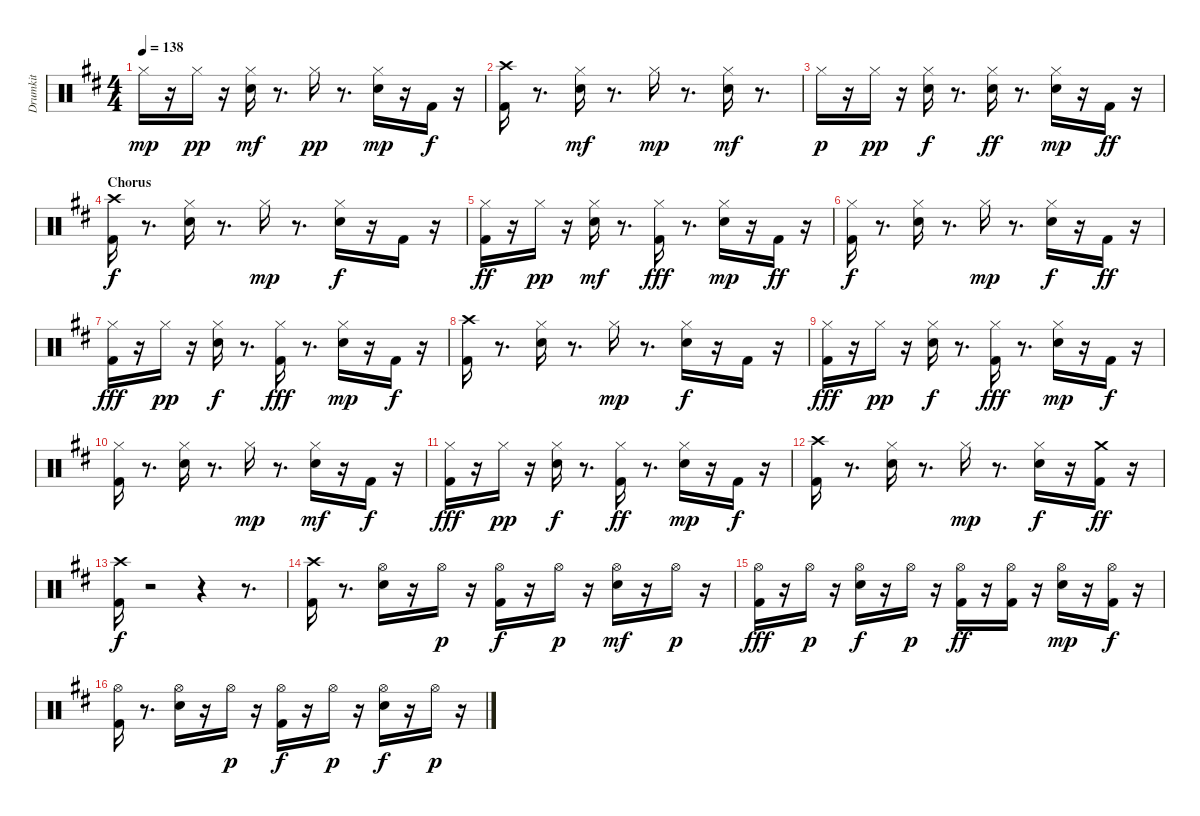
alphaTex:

\track ("Drumkit" "Drumkit") {instrument percussion}
\staff {score}
\articulation defaults
\ts (4 4)
\tempo 138
\clef neutral
\ks d "Hi-Hat (closed)".16{dy mp}
r.16 "Hi-Hat (closed)".16{dy pp} r.16 ("Snare (hit) 2" "Hi-Hat (closed)").16{dy mf} r.8{d} "Hi-Hat (closed)".16{dy pp} r.8{d} ("Snare (hit) 2" "Hi-Hat (closed)").16{dy mp} r.16 "Kick (hit) 2".16{dy f} r.16 |
("Kick (hit) 2" "Crash high (hit)").16 r.8{d} ("Snare (hit) 2" "Hi-Hat (closed)").16{dy mf} r.8{d} "Hi-Hat (closed)".16{dy mp} r.8{d} ("Snare (hit) 2" "Hi-Hat (closed)").16{dy mf} r.8{d} |
"Hi-Hat (closed)".16{dy p} r.16 "Hi-Hat (closed)".16{dy pp} r.16 ("Snare (hit) 2" "Hi-Hat (closed)").16{dy f} r.8{d} ("Snare (hit) 2" "Hi-Hat (closed)").16{dy ff} r.8{d} ("Snare (hit) 2" "Hi-Hat (closed)").16{dy mp} r.16 "Kick (hit) 2".16{dy ff} r.16 |
\section ("" "Chorus")
("Kick (hit) 2" "Crash high (hit)").16{dy f} r.8{d} ("Snare (hit) 2" "Hi-Hat (closed)").16 r.8{d} "Hi-Hat (closed)".16{dy mp} r.8{d} ("Snare (hit) 2" "Hi-Hat (closed)").16{dy f} r.16 "Kick (hit) 2".16 r.16 |
("Kick (hit) 2" "Hi-Hat (closed)").16{dy ff} r.16 "Hi-Hat (closed)".16{dy pp} r.16 ("Snare (hit) 2" "Hi-Hat (closed)").16{dy mf} r.8{d} ("Kick (hit) 2" "Hi-Hat (closed)").16{dy fff} r.8{d} ("Snare (hit) 2" "Hi-Hat (closed)").16{dy mp} r.16 "Kick (hit) 2".16{dy ff} r.16 |
("Kick (hit) 2" "Hi-Hat (closed)").16{dy f} r.8{d} ("Snare (hit) 2" "Hi-Hat (closed)").16 r.8{d} "Hi-Hat (closed)".16{dy mp} r.8{d} ("Snare (hit) 2" "Hi-Hat (closed)").16{dy f} r.16 "Kick (hit) 2".16{dy ff} r.16 |
("Kick (hit) 2" "Hi-Hat (closed)").16{dy fff} r.16 "Hi-Hat (closed)".16{dy pp} r.16 ("Snare (hit) 2" "Hi-Hat (closed)").16{dy f} r.8{d} ("Kick (hit) 2" "Hi-Hat (closed)").16{dy fff} r.8{d} ("Snare (hit) 2" "Hi-Hat (closed)").16{dy mp} r.16 "Kick (hit) 2".16{dy f} r.16 |
("Kick (hit) 2" "Crash high (hit)").16 r.8{d} ("Snare (hit) 2" "Hi-Hat (closed)").16 r.8{d} "Hi-Hat (closed)".16{dy mp} r.8{d} ("Snare (hit) 2" "Hi-Hat (closed)").16{dy f} r.16 "Kick (hit) 2".16 r.16 |
("Kick (hit) 2" "Hi-Hat (closed)").16{dy fff} r.16 "Hi-Hat (closed)".16{dy pp} r.16 ("Snare (hit) 2" "Hi-Hat (closed)").16{dy f} r.8{d} ("Kick (hit) 2" "Hi-Hat (closed)").16{dy fff} r.8{d} ("Snare (hit) 2" "Hi-Hat (closed)").16{dy mp} r.16 "Kick (hit) 2".16{dy f} r.16 |
("Kick (hit) 2" "Hi-Hat (closed)").16 r.8{d} ("Snare (hit) 2" "Hi-Hat (closed)").16 r.8{d} "Hi-Hat (closed)".16{dy mp} r.8{d} ("Snare (hit) 2" "Hi-Hat (closed)").16{dy mf} r.16 "Kick (hit) 2".16{dy f} r.16 |
("Kick (hit) 2" "Hi-Hat (closed)").16{dy fff} r.16 "Hi-Hat (closed)".16{dy pp} r.16 ("Snare (hit) 2" "Hi-Hat (closed)").16{dy f} r.8{d} ("Kick (hit) 2" "Hi-Hat (closed)").16{dy ff} r.8{d} ("Snare (hit) 2" "Hi-Hat (closed)").16{dy mp} r.16 "Kick (hit) 2".16{dy f} r.16 |
("Kick (hit) 2" "Crash high (hit)").16 r.8{d} ("Snare (hit) 2" "Hi-Hat (closed)").16 r.8{d} "Hi-Hat (closed)".16{dy mp} r.8{d} ("Snare (hit) 2" "Hi-Hat (closed)").16{dy f} r.16 ("Kick (hit) 2" "Crash medium (hit)").16{dy ff} r.16 |
("Kick (hit) 2" "Crash high (hit)").16{dy f} r.2 r.4 r.8{d} |
("Kick (hit) 2" "Crash high (hit)").16 r.8{d} ("Snare (hit) 2" "Hi-Hat (open)").16 r.16 "Hi-Hat (open)".16{dy p} r.16 ("Kick (hit) 2" "Hi-Hat (open)").16{dy f} r.16 "Hi-Hat (open)".16{dy p} r.16 ("Snare (hit) 2" "Hi-Hat (open)").16{dy mf} r.16 "Hi-Hat (open)".16{dy p} r.16 |
("Kick (hit) 2" "Hi-Hat (open)").16{dy fff} r.16 "Hi-Hat (open)".16{dy p} r.16 ("Snare (hit) 2" "Hi-Hat (open)").16{dy f} r.16 "Hi-Hat (open)".16{dy p} r.16 ("Kick (hit) 2" "Hi-Hat (open)").16{dy ff} r.16 ("Kick (hit) 2" "Hi-Hat (open)").16 r.16 ("Snare (hit) 2" "Hi-Hat (open)").16{dy mp} r.16 ("Kick (hit) 2" "Hi-Hat (open)").16{dy f} r.16 |
("Kick (hit) 2" "Hi-Hat (open)").16 r.8{d} ("Snare (hit) 2" "Hi-Hat (open)").16 r.16 "Hi-Hat (open)".16{dy p} r.16 ("Kick (hit) 2" "Hi-Hat (open)").16{dy f} r.16 "Hi-Hat (open)".16{dy p} r.16 ("Snare (hit) 2" "Hi-Hat (open)").16{dy f} r.16 "Hi-Hat (open)".16{dy p} r.16
